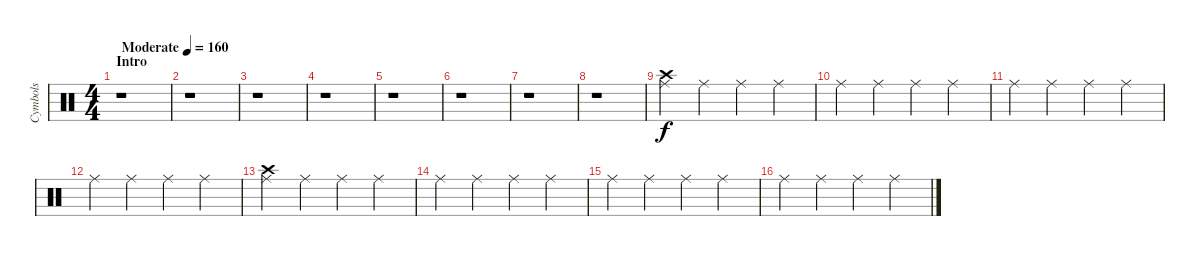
\track ("Cymbols" "Cymbols") {instrument percussion}
\staff {score}
\articulation defaults
\ts (4 4)
\section ("" "Intro")
\tempo (160 "Moderate")
\clef neutral
\ks c
r.1{dy f} |
r.1 |
r.1 |
r.1 |
r.1 |
r.1 |
r.1 |
r.1 |
("Crash high (hit)" "Ride (middle)").4 "Ride (middle)".4 "Ride (middle)".4 "Ride (middle)".4 |
"Ride (middle)".4 "Ride (middle)".4 "Ride (middle)".4 "Ride (middle)".4 |
"Ride (middle)".4 "Ride (middle)".4 "Ride (middle)".4 "Ride (middle)".4 |
"Ride (middle)".4 "Ride (middle)".4 "Ride (middle)".4 "Ride (middle)".4 |
("Crash high (hit)" "Ride (middle)").4 "Ride (middle)".4 "Ride (middle)".4 "Ride (middle)".4 |
"Ride (middle)".4 "Ride (middle)".4 "Ride (middle)".4 "Ride (middle)".4 |
"Ride (middle)".4 "Ride (middle)".4 "Ride (middle)".4 "Ride (middle)".4 |
"Ride (middle)".4 "Ride (middle)".4 "Ride (middle)".4 "Ride (middle)".4
